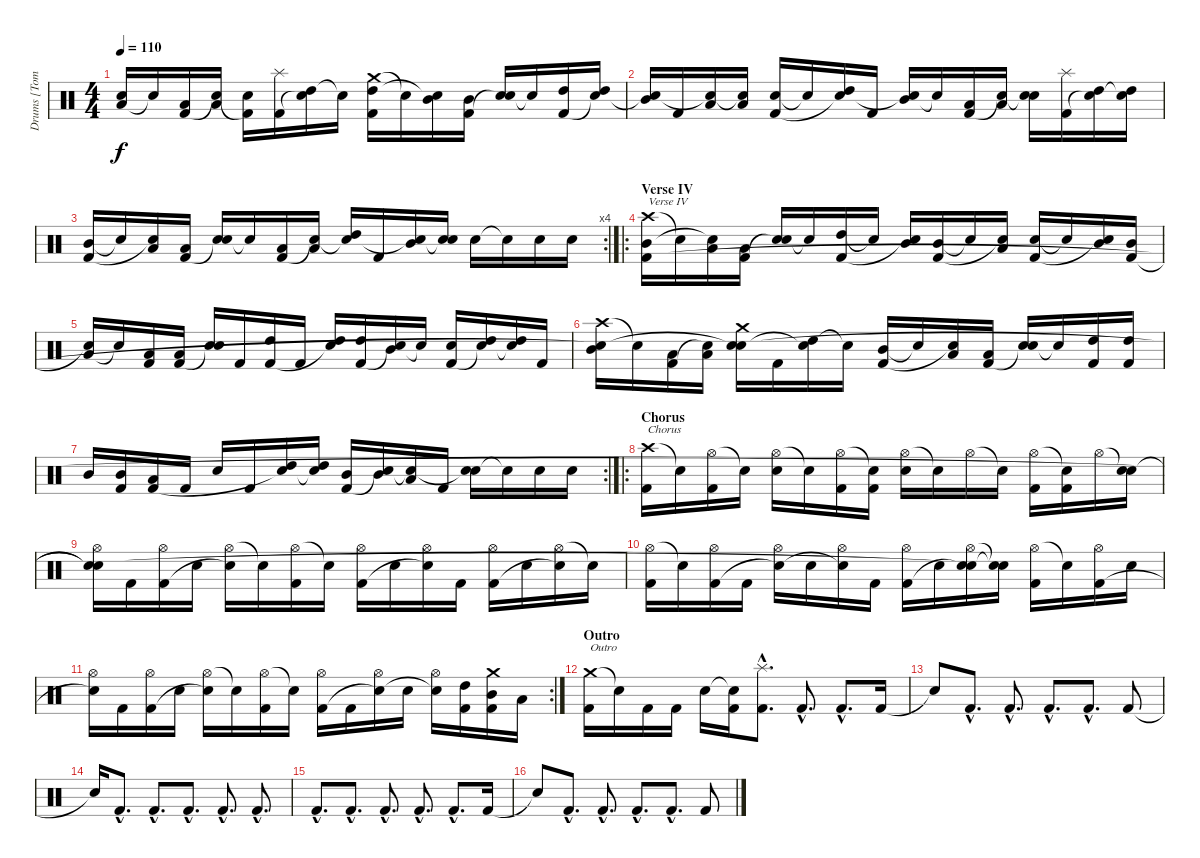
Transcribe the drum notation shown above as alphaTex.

\track ("Drums [Tomas Haake]" "Drums [Tom") {instrument percussion}
\staff {score}
\articulation defaults
\ts (4 4)
\tempo 110
\clef neutral
\ks c
("Low Tom (hit)" "Snare (hit)"{t}).16{dy f} "Snare (hit)"{t}.16 ("Low Tom (hit)" "Kick (hit) 2").16 ("Low Tom (hit)" "Snare (hit)"{t}).16 ("Electric Snare (hit)" "Kick (hit) 2"{t}).16 ("Splash (hit)" "Kick (hit) 2").16 ("High Tom (hit)" "Snare (hit)"{t}).16 "Snare (hit)"{t}.16 ("Crash medium (hit)" "High Tom (hit)" "Kick (hit) 2").16 "Snare (hit)"{t}.16 ("Mid Tom (hit)" "Snare (hit)"{t}).16 ("Mid Tom (hit)" "Kick (hit) 2").16 ("Electric Snare (hit)" "Snare (hit)"{t}).16 "Snare (hit)"{t}.16 ("High Tom (hit)" "Kick (hit) 2").16 ("High Tom (hit)" "Snare (hit)"{t}).16 |
("Mid Tom (hit)" "Snare (hit)"{t}).16 "Kick (hit) 2".16 ("Low Tom (hit)" "Snare (hit)"{t}).16 ("Low Tom (hit)" "Snare (hit)"{t}).16 ("Electric Snare (hit)" "Kick (hit) 2").16 "Snare (hit)"{t}.16 ("High Tom (hit)" "Snare (hit)"{t}).16 "Kick (hit) 2".16 ("Mid Tom (hit)" "Snare (hit)"{t}).16 "Snare (hit)"{t}.16 ("Low Tom (hit)" "Kick (hit) 2").16 ("Low Tom (hit)" "Snare (hit)"{t}).16 ("Electric Snare (hit)" "Snare (hit)"{t}).16 ("Splash (hit)" "Kick (hit) 2").16 ("High Tom (hit)" "Snare (hit)"{t}).16 ("High Tom (hit)" "Snare (hit)"{t}).16 |
\rc 4
("Mid Tom (hit)" "Kick (hit) 2").16 "Snare (hit)"{t}.16 ("Low Tom (hit)" "Snare (hit)"{t}).16 ("Low Tom (hit)" "Kick (hit) 2").16 ("Electric Snare (hit)" "Snare (hit)"{t}).16 "Snare (hit)"{t}.16 ("Low Tom (hit)" "Kick (hit) 2").16 ("Low Tom (hit)" "Snare (hit)"{t}).16 ("High Tom (hit)" "Snare (hit)"{t}).16 "Kick (hit) 2".16 ("Mid Tom (hit)" "Snare (hit)"{t}).16 ("Electric Snare (hit)" "Snare (hit)"{t}).16 "Electric Snare (hit)".16 "Snare (hit)"{t}.16 "Electric Snare (hit)".16 "Electric Snare (hit)".16 |
\ro
\section ("" "Verse IV")
("Crash high (hit)" "Mid Tom (hit)" "Kick (hit) 2").16{txt "Verse IV"} "Snare (hit)"{t}.16 ("Low Tom (hit)" "Snare (hit)"{t}).16 ("Low Tom (hit)" "Kick (hit) 2").16 ("Electric Snare (hit)" "Snare (hit)"{t}).16 "Snare (hit)"{t}.16 ("High Tom (hit)" "Kick (hit) 2").16 "Snare (hit)"{t}.16 ("Mid Tom (hit)" "Snare (hit)"{t}).16 ("Mid Tom (hit)" "Kick (hit) 2").16 "Snare (hit)"{t}.16 ("Low Tom (hit)" "Snare (hit)"{t}).16 ("Electric Snare (hit)" "Kick (hit) 2").16 "Snare (hit)"{t}.16 ("Mid Tom (hit)" "Snare (hit)"{t}).16 ("Mid Tom (hit)" "Kick (hit) 2").16 |
("Low Tom (hit)" "Snare (hit)"{t}).16 "Snare (hit)"{t}.16 ("Low Tom (hit)" "Kick (hit) 2").16 ("Low Tom (hit)" "Kick (hit) 2").16 ("Electric Snare (hit)" "Snare (hit)"{t}).16 "Kick (hit) 2".16 ("High Tom (hit)" "Kick (hit) 2").16 "Kick (hit) 2".16 ("High Tom (hit)" "Snare (hit)"{t}).16 ("High Tom (hit)" "Kick (hit) 2").16 ("Mid Tom (hit)" "Snare (hit)"{t}).16 "Snare (hit)"{t}.16 ("Electric Snare (hit)" "Kick (hit) 2").16 ("High Tom (hit)" "Snare (hit)"{t}).16 ("High Tom (hit)" "Snare (hit)"{t}).16 "Kick (hit) 2".16 |
("Crash high (hit)" "Mid Tom (hit)" "Snare (hit)"{t}).16 "Snare (hit)"{t}.16 ("Low Tom (hit)" "Kick (hit) 2").16 ("Low Tom (hit)" "Snare (hit)"{t}).16 ("Crash medium (hit)" "Electric Snare (hit)" "Snare (hit)"{t}).16 "Kick (hit) 2".16 ("High Tom (hit)" "Snare (hit)"{t}).16 "Snare (hit)"{t}.16 ("Mid Tom (hit)" "Kick (hit) 2").16 "Snare (hit)"{t}.16 ("Low Tom (hit)" "Snare (hit)"{t}).16 ("Low Tom (hit)" "Kick (hit) 2").16 ("Electric Snare (hit)" "Snare (hit)"{t}).16 "Snare (hit)"{t}.16 ("High Tom (hit)" "Kick (hit) 2").16 ("High Tom (hit)" "Kick (hit) 2").16 |
\rc 2 "Mid Tom (hit)".16
("Mid Tom (hit)" "Kick (hit) 2").16 ("Low Tom (hit)" "Kick (hit) 2").16 "Kick (hit) 2".16 "Electric Snare (hit)".16 "Kick (hit) 2".16 ("High Tom (hit)" "Snare (hit)"{t}).16 ("High Tom (hit)" "Snare (hit)"{t}).16 ("Mid Tom (hit)" "Kick (hit) 2").16 ("Mid Tom (hit)" "Snare (hit)"{t}).16 ("Low Tom (hit)" "Snare (hit)"{t}).16 "Kick (hit) 2".16 ("Electric Snare (hit)" "Snare (hit)"{t}).16 "Snare (hit)"{t}.16 "Electric Snare (hit)".16 "Electric Snare (hit)".16 |
\ro
\section ("" "Chorus")
("Crash high (hit)" "Kick (hit) 2").16{txt "Chorus"} "Snare (hit)"{t}.16 ("Hi-Hat (open)" "Kick (hit) 2").16 "Snare (hit)"{t}.16 ("Hi-Hat (open)" "Electric Snare (hit)").16 "Snare (hit)"{t}.16 ("Hi-Hat (open)" "Kick (hit) 2").16 ("Snare (hit)"{t} "Kick (hit) 2").16 ("Hi-Hat (open)" "Electric Snare (hit)").16 "Snare (hit)"{t}.16 "Hi-Hat (open)".16 "Snare (hit)"{t}.16 ("Hi-Hat (open)" "Kick (hit) 2").16 ("Snare (hit)"{t} "Kick (hit) 2").16 "Hi-Hat (open)".16 ("Snare (hit)"{t} "Electric Snare (hit)").16 |
("Hi-Hat (open)" "Snare (hit)"{t} "Snare (hit)"{t}).16 "Kick (hit) 2".16 ("Hi-Hat (open)" "Kick (hit) 2").16 "Electric Snare (hit)".16 ("Hi-Hat (open)" "Snare (hit)"{t}).16 "Snare (hit)"{t}.16 ("Hi-Hat (open)" "Kick (hit) 2").16 "Snare (hit)"{t}.16 ("Hi-Hat (open)" "Kick (hit) 2").16 "Electric Snare (hit)".16 ("Hi-Hat (open)" "Snare (hit)"{t}).16 "Kick (hit) 2".16 ("Hi-Hat (open)" "Kick (hit) 2").16 "Electric Snare (hit)".16 ("Hi-Hat (open)" "Snare (hit)"{t}).16 "Snare (hit)"{t}.16 |
("Hi-Hat (open)" "Kick (hit) 2").16 "Snare (hit)"{t}.16 ("Hi-Hat (open)" "Kick (hit) 2").16 "Kick (hit) 2".16 ("Hi-Hat (open)" "Snare (hit)"{t}).16 "Electric Snare (hit)".16 ("Hi-Hat (open)" "Snare (hit)"{t}).16 "Kick (hit) 2".16 ("Hi-Hat (open)" "Kick (hit) 2").16 "Electric Snare (hit)".16 ("Hi-Hat (open)" "Snare (hit)"{t} "Snare (hit)"{t}).16 ("Snare (hit)"{t} "Snare (hit)"{t}).16 ("Hi-Hat (open)" "Kick (hit) 2").16 "Snare (hit)"{t}.16 ("Hi-Hat (open)" "Kick (hit) 2").16 "Electric Snare (hit)".16 |
\rc 2
("Hi-Hat (open)" "Snare (hit)"{t}).16 "Kick (hit) 2".16 ("Hi-Hat (open)" "Kick (hit) 2").16 "Electric Snare (hit)".16 ("Hi-Hat (open)" "Snare (hit)"{t}).16 "Snare (hit)"{t}.16 ("Hi-Hat (open)" "Kick (hit) 2").16 "Snare (hit)"{t}.16 ("Hi-Hat (open)" "Kick (hit) 2").16 "Kick (hit) 2".16 ("Hi-Hat (open)" "Snare (hit)"{t}).16 "Electric Snare (hit)".16 ("Hi-Hat (open)" "Snare (hit)"{t}).16 ("High Tom (hit)" "Kick (hit) 2").16 ("Crash medium (hit)" "Mid Tom (hit)" "Kick (hit) 2").16 "Low Tom (hit)".16 |
\section ("" "Outro")
("Crash medium (hit)" "Kick (hit) 2").16{txt "Outro"} "Snare (hit)"{t}.16 "Kick (hit) 2".16 "Kick (hit) 2".16 "Electric Snare (hit)".16 ("Snare (hit)"{t} "Kick (hit) 2").16 ("Splash (hit)"{hac} "Kick (hit) 2"{hac}).8{d} "Kick (hit) 2"{hac}.8{d} "Kick (hit) 2"{hac}.8{d} "Kick (hit) 2".16 |
"Snare (hit)"{t}.8 "Kick (hit) 2"{hac}.8{d} "Kick (hit) 2"{hac}.8{d} "Kick (hit) 2"{hac}.8{d} "Kick (hit) 2"{hac}.8{d} "Kick (hit) 2".8 |
"Snare (hit)"{t}.16 "Kick (hit) 2"{hac}.8{d} "Kick (hit) 2"{hac}.8{d} "Kick (hit) 2"{hac}.8{d} "Kick (hit) 2"{hac}.8{d} "Kick (hit) 2"{hac}.8{d} |
"Kick (hit) 2"{hac}.8{d} "Kick (hit) 2"{hac}.8{d} "Kick (hit) 2"{hac}.8{d} "Kick (hit) 2"{hac}.8{d} "Kick (hit) 2"{hac}.8{d} "Kick (hit) 2".16 |
"Snare (hit)"{t}.8 "Kick (hit) 2"{hac}.8{d} "Kick (hit) 2"{hac}.8{d} "Kick (hit) 2"{hac}.8{d} "Kick (hit) 2"{hac}.8{d} "Kick (hit) 2".8
